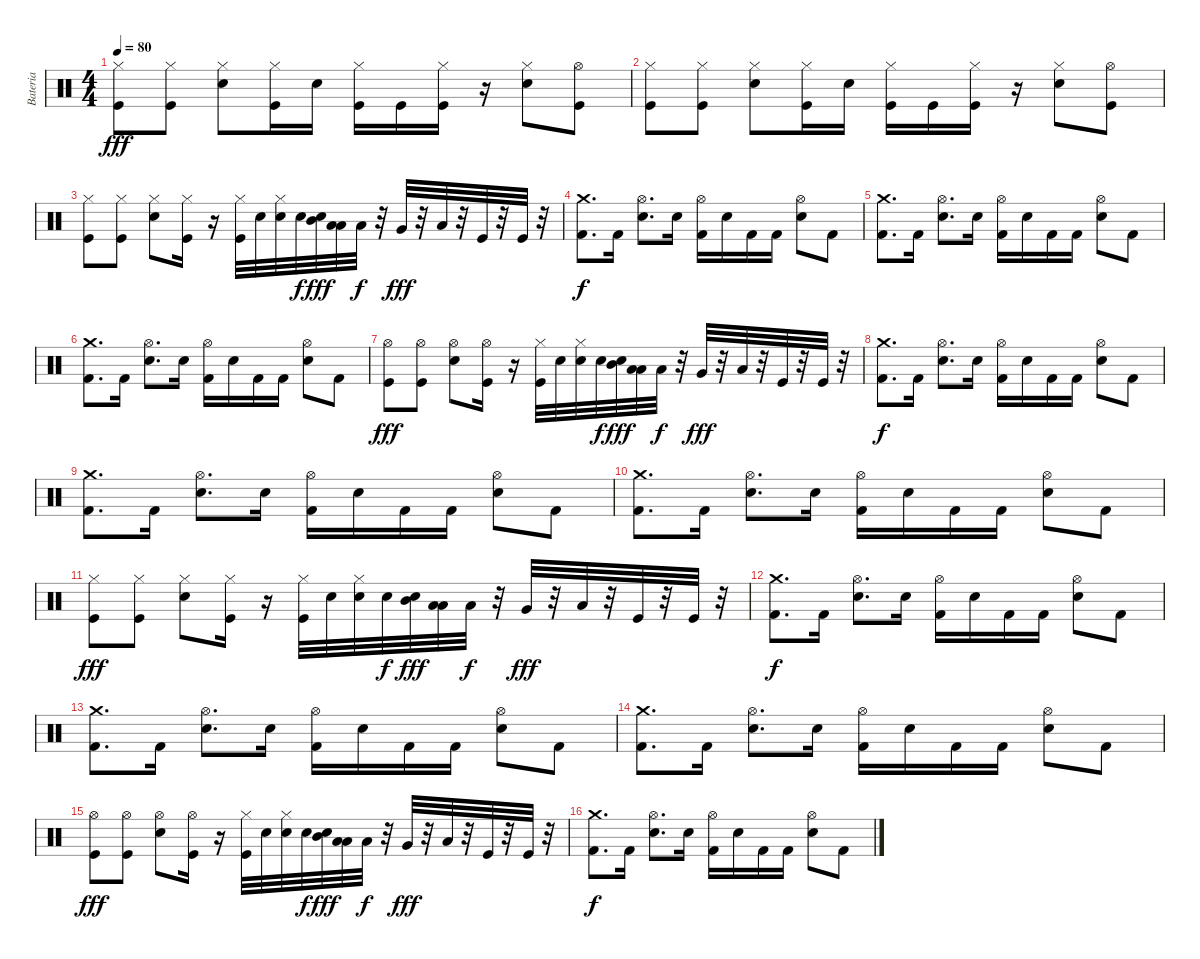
\track ("Bateria" "Bateria") {instrument percussion}
\staff {score}
\articulation defaults
\ts (4 4)
\tempo 80
\clef neutral
\ks c
("Kick (hit)" "Hi-Hat (closed)").8{dy fff} ("Kick (hit)" "Hi-Hat (closed)").8 ("Snare (hit) 2" "Hi-Hat (closed)").8 ("Kick (hit)" "Hi-Hat (closed)").16 "Snare (hit) 2".16 ("Kick (hit)" "Hi-Hat (closed)").16 "Kick (hit)".16 ("Kick (hit)" "Hi-Hat (closed)").16 r.16 ("Snare (hit) 2" "Hi-Hat (closed)").8 ("Kick (hit)" "Hi-Hat (open)").8 |
("Kick (hit)" "Hi-Hat (closed)").8 ("Kick (hit)" "Hi-Hat (closed)").8 ("Snare (hit) 2" "Hi-Hat (closed)").8 ("Kick (hit)" "Hi-Hat (closed)").16 "Snare (hit) 2".16 ("Kick (hit)" "Hi-Hat (closed)").16 "Kick (hit)".16 ("Kick (hit)" "Hi-Hat (closed)").16 r.16 ("Snare (hit) 2" "Hi-Hat (closed)").8 ("Kick (hit)" "Hi-Hat (open)").8 |
("Kick (hit)" "Hi-Hat (closed)").8 ("Kick (hit)" "Hi-Hat (closed)").8 ("Snare (hit) 2" "Hi-Hat (closed)").8 ("Kick (hit)" "Hi-Hat (closed)").16 r.16 ("Kick (hit)" "Hi-Hat (closed)").32 "Snare (hit) 2".32 ("Snare (hit) 2" "Hi-Hat (closed)").32 "Snare (hit) 2".32{dy f} ("Snare (hit) 2" "Mid Tom (hit)").32{dy fff} ("Low Tom (hit)" "Low Tom (hit)").32 "Low Tom (hit)".32{dy f} r.32 "Very Low Tom (hit)".32{dy fff} r.32 "Low Floor Tom (hit)".32 r.32 "Kick (hit)".32 r.32 "Kick (hit)".32 r.32 |
("Crash medium (hit)" "Kick (hit) 2").8{d dy f} "Kick (hit) 2".16 ("Hi-Hat (open)" "Electric Snare (hit)").8{d} "Electric Snare (hit)".16 ("Hi-Hat (open)" "Kick (hit) 2").16 "Electric Snare (hit)".16 "Kick (hit) 2".16 "Kick (hit) 2".16 ("Hi-Hat (open)" "Electric Snare (hit)").8 "Kick (hit) 2".8 |
("Crash medium (hit)" "Kick (hit) 2").8{d} "Kick (hit) 2".16 ("Hi-Hat (open)" "Electric Snare (hit)").8{d} "Electric Snare (hit)".16 ("Hi-Hat (open)" "Kick (hit) 2").16 "Electric Snare (hit)".16 "Kick (hit) 2".16 "Kick (hit) 2".16 ("Hi-Hat (open)" "Electric Snare (hit)").8 "Kick (hit) 2".8 |
("Crash medium (hit)" "Kick (hit) 2").8{d} "Kick (hit) 2".16 ("Hi-Hat (open)" "Electric Snare (hit)").8{d} "Electric Snare (hit)".16 ("Hi-Hat (open)" "Kick (hit) 2").16 "Electric Snare (hit)".16 "Kick (hit) 2".16 "Kick (hit) 2".16 ("Hi-Hat (open)" "Electric Snare (hit)").8 "Kick (hit) 2".8 |
("Kick (hit)" "Hi-Hat (open)").8{dy fff} ("Kick (hit)" "Hi-Hat (open)").8 ("Snare (hit) 2" "Hi-Hat (open)").8 ("Kick (hit)" "Hi-Hat (open)").16 r.16 ("Kick (hit)" "Hi-Hat (closed)").32 "Snare (hit) 2".32 ("Snare (hit) 2" "Hi-Hat (closed)").32 "Snare (hit) 2".32{dy f} ("Snare (hit) 2" "Mid Tom (hit)").32{dy fff} ("Low Tom (hit)" "Low Tom (hit)").32 "Low Tom (hit)".32{dy f} r.32 "Very Low Tom (hit)".32{dy fff} r.32 "Low Floor Tom (hit)".32 r.32 "Kick (hit)".32 r.32 "Kick (hit)".32 r.32 |
("Crash medium (hit)" "Kick (hit) 2").8{d dy f} "Kick (hit) 2".16 ("Hi-Hat (open)" "Electric Snare (hit)").8{d} "Electric Snare (hit)".16 ("Hi-Hat (open)" "Kick (hit) 2").16 "Electric Snare (hit)".16 "Kick (hit) 2".16 "Kick (hit) 2".16 ("Hi-Hat (open)" "Electric Snare (hit)").8 "Kick (hit) 2".8 |
("Crash medium (hit)" "Kick (hit) 2").8{d} "Kick (hit) 2".16 ("Hi-Hat (open)" "Electric Snare (hit)").8{d} "Electric Snare (hit)".16 ("Hi-Hat (open)" "Kick (hit) 2").16 "Electric Snare (hit)".16 "Kick (hit) 2".16 "Kick (hit) 2".16 ("Hi-Hat (open)" "Electric Snare (hit)").8 "Kick (hit) 2".8 |
("Crash medium (hit)" "Kick (hit) 2").8{d} "Kick (hit) 2".16 ("Hi-Hat (open)" "Electric Snare (hit)").8{d} "Electric Snare (hit)".16 ("Hi-Hat (open)" "Kick (hit) 2").16 "Electric Snare (hit)".16 "Kick (hit) 2".16 "Kick (hit) 2".16 ("Hi-Hat (open)" "Electric Snare (hit)").8 "Kick (hit) 2".8 |
("Kick (hit)" "Hi-Hat (closed)").8{dy fff} ("Kick (hit)" "Hi-Hat (closed)").8 ("Snare (hit) 2" "Hi-Hat (closed)").8 ("Kick (hit)" "Hi-Hat (closed)").16 r.16 ("Kick (hit)" "Hi-Hat (closed)").32 "Snare (hit) 2".32 ("Snare (hit) 2" "Hi-Hat (closed)").32 "Snare (hit) 2".32{dy f} ("Snare (hit) 2" "Mid Tom (hit)").32{dy fff} ("Low Tom (hit)" "Low Tom (hit)").32 "Low Tom (hit)".32{dy f} r.32 "Very Low Tom (hit)".32{dy fff} r.32 "Low Floor Tom (hit)".32 r.32 "Kick (hit)".32 r.32 "Kick (hit)".32 r.32 |
("Crash medium (hit)" "Kick (hit) 2").8{d dy f} "Kick (hit) 2".16 ("Hi-Hat (open)" "Electric Snare (hit)").8{d} "Electric Snare (hit)".16 ("Hi-Hat (open)" "Kick (hit) 2").16 "Electric Snare (hit)".16 "Kick (hit) 2".16 "Kick (hit) 2".16 ("Hi-Hat (open)" "Electric Snare (hit)").8 "Kick (hit) 2".8 |
("Crash medium (hit)" "Kick (hit) 2").8{d} "Kick (hit) 2".16 ("Hi-Hat (open)" "Electric Snare (hit)").8{d} "Electric Snare (hit)".16 ("Hi-Hat (open)" "Kick (hit) 2").16 "Electric Snare (hit)".16 "Kick (hit) 2".16 "Kick (hit) 2".16 ("Hi-Hat (open)" "Electric Snare (hit)").8 "Kick (hit) 2".8 |
("Crash medium (hit)" "Kick (hit) 2").8{d} "Kick (hit) 2".16 ("Hi-Hat (open)" "Electric Snare (hit)").8{d} "Electric Snare (hit)".16 ("Hi-Hat (open)" "Kick (hit) 2").16 "Electric Snare (hit)".16 "Kick (hit) 2".16 "Kick (hit) 2".16 ("Hi-Hat (open)" "Electric Snare (hit)").8 "Kick (hit) 2".8 |
("Kick (hit)" "Hi-Hat (open)").8{dy fff} ("Kick (hit)" "Hi-Hat (open)").8 ("Snare (hit) 2" "Hi-Hat (open)").8 ("Kick (hit)" "Hi-Hat (open)").16 r.16 ("Kick (hit)" "Hi-Hat (closed)").32 "Snare (hit) 2".32 ("Snare (hit) 2" "Hi-Hat (closed)").32 "Snare (hit) 2".32{dy f} ("Snare (hit) 2" "Mid Tom (hit)").32{dy fff} ("Low Tom (hit)" "Low Tom (hit)").32 "Low Tom (hit)".32{dy f} r.32 "Very Low Tom (hit)".32{dy fff} r.32 "Low Floor Tom (hit)".32 r.32 "Kick (hit)".32 r.32 "Kick (hit)".32 r.32 |
("Crash medium (hit)" "Kick (hit) 2").8{d dy f} "Kick (hit) 2".16 ("Hi-Hat (open)" "Electric Snare (hit)").8{d} "Electric Snare (hit)".16 ("Hi-Hat (open)" "Kick (hit) 2").16 "Electric Snare (hit)".16 "Kick (hit) 2".16 "Kick (hit) 2".16 ("Hi-Hat (open)" "Electric Snare (hit)").8 "Kick (hit) 2".8
